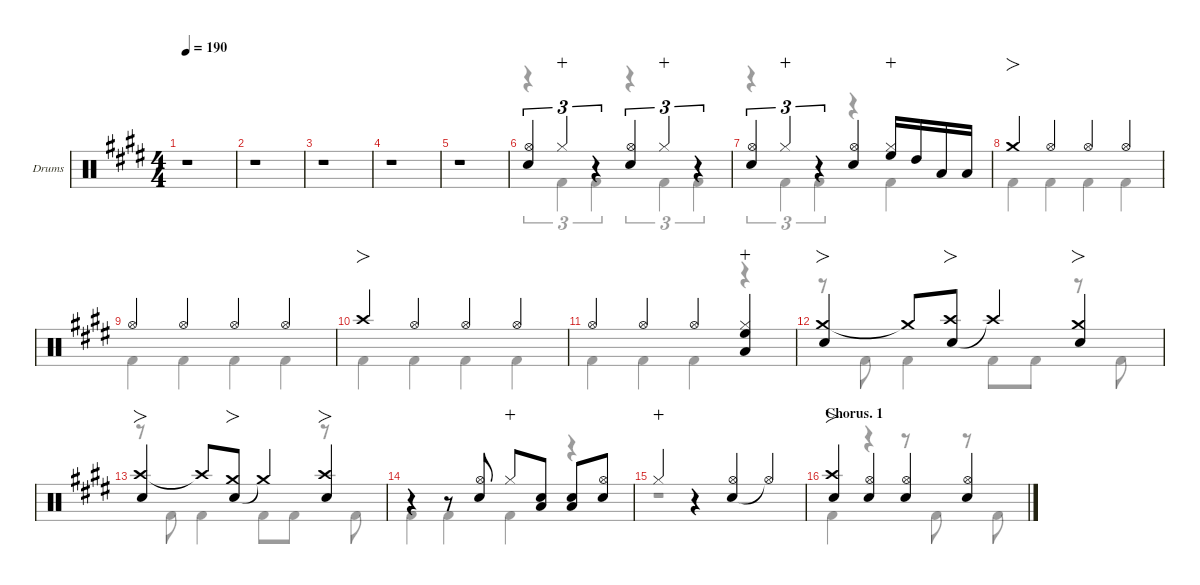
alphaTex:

\defaultSystemsLayout 4
\hideDynamics
\bracketExtendMode nobrackets
\firstSystemTrackNameOrientation horizontal
\track ("Drums" "Drums") {defaultSystemsLayout 4 instrument percussion}
\staff {score}
\articulation defaults
\voice
\ts (4 4)
\tempo 190
\clef neutral
\scale
0.244132
\ks e
r.1{dy mp beam Up} |
\scale
0.244132 r.1{beam Up} |
\scale
0.244132 r.1{beam Up} |
\scale
0.267605 r.1{beam Up} |
\scale
0.244132 r.1{beam Up} |
\scale
0.244132 ("Snare (hit) 2"{acc forcenatural} "Hi-Hat (open)"{acc forcenatural}).4{tu (3 2) dy f beam Up} "Hi-Hat (closed)"{acc forcenatural}.4{tu (3 2) dy mp wahc beam Up} r.4{tu (3 2) beam Up} ("Snare (hit) 2"{acc forcenatural} "Hi-Hat (open)"{acc forcenatural}).4{tu (3 2) dy f beam Up} "Hi-Hat (closed)"{acc forcenatural}.4{tu (3 2) dy mp wahc beam Up} r.4{tu (3 2) beam Up} |
\scale
0.244132 ("Snare (hit) 2"{acc forcenatural} "Hi-Hat (open)"{acc forcenatural}).4{tu (3 2) dy f beam Up} "Hi-Hat (closed)"{acc forcenatural}.4{tu (3 2) dy mp wahc beam Up} r.4{tu (3 2) beam Up} ("Hi-Hat (open)"{acc forcenatural} "Snare (hit) 2"{acc forcenatural}).4{dy f beam Up} ("Hi-Hat (closed)"{acc forcenatural} "High Floor Tom (hit)"{acc forcenatural}).16{wahc beam Up} "High Tom (hit)"{acc forcenatural}.16{beam Up} "Low Tom (hit)"{acc forcenatural}.16{beam Up} "Low Tom (hit)"{acc forcenatural}.16{beam Up} |
\scale
0.267605 "Crash medium (hit)"{acc forcenatural}.4{fo beam Up} "Hi-Hat (open)"{acc forcenatural}.4{beam Up} "Hi-Hat (open)"{acc forcenatural}.4{beam Up} "Hi-Hat (open)"{acc forcenatural}.4{beam Up} |
\scale
0.244132 "Hi-Hat (open)"{acc forcenatural}.4{beam Up} "Hi-Hat (open)"{acc forcenatural}.4{beam Up} "Hi-Hat (open)"{acc forcenatural}.4{beam Up} "Hi-Hat (open)"{acc forcenatural}.4{beam Up} |
\scale
0.244132 "Crash high (hit)"{acc forcenatural}.4{fo beam Up} "Hi-Hat (open)"{acc forcenatural}.4{beam Up} "Hi-Hat (open)"{acc forcenatural}.4{beam Up} "Hi-Hat (open)"{acc forcenatural}.4{beam Up} |
\scale
0.244132 "Hi-Hat (open)"{acc forcenatural}.4{beam Up} "Hi-Hat (open)"{acc forcenatural}.4{beam Up} "Hi-Hat (open)"{acc forcenatural}.4{beam Up} ("High Floor Tom (hit)"{acc forcenatural} "Low Tom (hit)"{acc forcenatural} "Hi-Hat (closed)"{acc forcenatural}).4{wahc beam Up} |
\scale
0.267605 ("Crash medium (hit)"{acc forcenatural} "Snare (hit) 2"{acc forcenatural}).4{fo beam Up} "Crash medium (hit)"{t acc forcenatural}.8{beam Up} ("Snare (hit) 2"{acc forcenatural} "Crash high (hit)"{acc forcenatural}).8{fo beam Up} "Crash high (hit)"{t acc forcenatural}.4{beam Up} ("Snare (hit) 2"{acc forcenatural} "Crash medium (hit)"{acc forcenatural}).4{fo beam Up} |
\scale
0.244132 ("Crash high (hit)"{acc forcenatural} "Snare (hit) 2"{acc forcenatural}).4{fo beam Up} "Crash high (hit)"{t acc forcenatural}.8{beam Up} ("Snare (hit) 2"{acc forcenatural} "Crash medium (hit)"{acc forcenatural}).8{fo beam Up} "Crash medium (hit)"{t acc forcenatural}.4{beam Up} ("Snare (hit) 2"{acc forcenatural} "Crash high (hit)"{acc forcenatural}).4{fo beam Up} |
\scale
0.244132 r.4{beam Up} r.8{beam Up} ("Snare (hit) 2"{acc forcenatural} "Hi-Hat (open)"{acc forcenatural}).8{beam Up} "Hi-Hat (closed)"{acc forcenatural}.8{dy mp wahc beam Up} ("Snare (hit) 2"{acc forcenatural} "Low Tom (hit)"{acc forcenatural}).8{dy f beam Up} ("Snare (hit) 2"{acc forcenatural} "Low Tom (hit)"{acc forcenatural}).8{beam Up} ("Hi-Hat (open)"{acc forcenatural} "Snare (hit) 2"{acc forcenatural}).8{beam Up} |
\scale
0.244132 "Hi-Hat (closed)"{acc forcenatural}.4{dy mp wahc beam Up} r.4{beam Up} ("Snare (hit) 2"{acc forcenatural} "Hi-Hat (open)"{acc forcenatural}).4{dy f beam Up} "Hi-Hat (open)"{t acc forcenatural}.4{beam Up} |
\section ("" "Chorus. 1")
\scale
0.267605 ("Crash high (hit)"{acc forcenatural} "Snare (hit) 2"{acc forcenatural}).4{fo beam Up} ("Snare (hit) 2"{acc forcenatural} "Hi-Hat (open)"{acc forcenatural}).4{beam Up} ("Snare (hit) 2"{acc forcenatural} "Hi-Hat (open)"{acc forcenatural}).4{beam Up} ("Snare (hit) 2"{acc forcenatural} "Hi-Hat (open)"{acc forcenatural}).4{beam Up}
\voice
\clef neutral
\ottava regular
\simile none
\scale
0.244132
\ks e
r.1{dy f beam Down} |
\scale
0.244132 r.1{beam Down} |
\scale
0.244132 r.1{beam Down} |
\scale
0.267605 r.1{beam Down} |
\scale
0.244132 r.1{beam Down} |
\scale
0.244132 r.4{tu (3 2) beam Down} "Kick (hit) 2"{acc forcenatural}.4{tu (3 2) beam Down} "Kick (hit) 2"{acc forcenatural}.4{tu (3 2) beam Down} r.4{tu (3 2) beam Down} "Kick (hit) 2"{acc forcenatural}.4{tu (3 2) beam Down} "Kick (hit) 2"{acc forcenatural}.4{tu (3 2) beam Down} |
\scale
0.244132 r.4{tu (3 2) beam Down} "Kick (hit) 2"{acc forcenatural}.4{tu (3 2) beam Down} "Kick (hit) 2"{acc forcenatural}.4{tu (3 2) beam Down} r.4{beam Down} "Kick (hit) 2"{acc forcenatural}.4{beam Down} |
\scale
0.267605 "Kick (hit) 2"{acc forcenatural}.4{beam Down} "Kick (hit) 2"{acc forcenatural}.4{beam Down} "Kick (hit) 2"{acc forcenatural}.4{beam Down} "Kick (hit) 2"{acc forcenatural}.4{beam Down} |
\scale
0.244132 "Kick (hit) 2"{acc forcenatural}.4{beam Down} "Kick (hit) 2"{acc forcenatural}.4{beam Down} "Kick (hit) 2"{acc forcenatural}.4{beam Down} "Kick (hit) 2"{acc forcenatural}.4{beam Down} |
\scale
0.244132 "Kick (hit) 2"{acc forcenatural}.4{beam Down} "Kick (hit) 2"{acc forcenatural}.4{beam Down} "Kick (hit) 2"{acc forcenatural}.4{beam Down} "Kick (hit) 2"{acc forcenatural}.4{beam Down} |
\scale
0.244132 "Kick (hit) 2"{acc forcenatural}.4{beam Down} "Kick (hit) 2"{acc forcenatural}.4{beam Down} "Kick (hit) 2"{acc forcenatural}.4{beam Down} r.4{beam Down} |
\scale
0.267605 r.8{beam Down} "Kick (hit) 2"{acc forcenatural}.8{beam Down} "Kick (hit) 2"{acc forcenatural}.4{beam Down} "Kick (hit) 2"{acc forcenatural}.8{beam Down} "Kick (hit) 2"{acc forcenatural}.8{beam Down} r.8{beam Down} "Kick (hit) 2"{acc forcenatural}.8{beam Down} |
\scale
0.244132 r.8{beam Down} "Kick (hit) 2"{acc forcenatural}.8{beam Down} "Kick (hit) 2"{acc forcenatural}.4{beam Down} "Kick (hit) 2"{acc forcenatural}.8{beam Down} "Kick (hit) 2"{acc forcenatural}.8{beam Down} r.8{beam Down} "Kick (hit) 2"{acc forcenatural}.8{beam Down} |
\scale
0.244132 "Kick (hit) 2"{acc forcenatural}.4{beam Down} "Kick (hit) 2"{acc forcenatural}.4{beam Down} "Kick (hit) 2"{acc forcenatural}.4{beam Down} r.4{beam Down} |
\scale
0.244132 r.1{beam Down} |
\scale
0.267605 "Kick (hit) 2"{acc forcenatural}.4{beam Down} r.4{beam Down} r.8{beam Down} "Kick (hit) 2"{acc forcenatural}.8{beam Down} r.8{beam Down} "Kick (hit) 2"{acc forcenatural}.8{beam Down}
